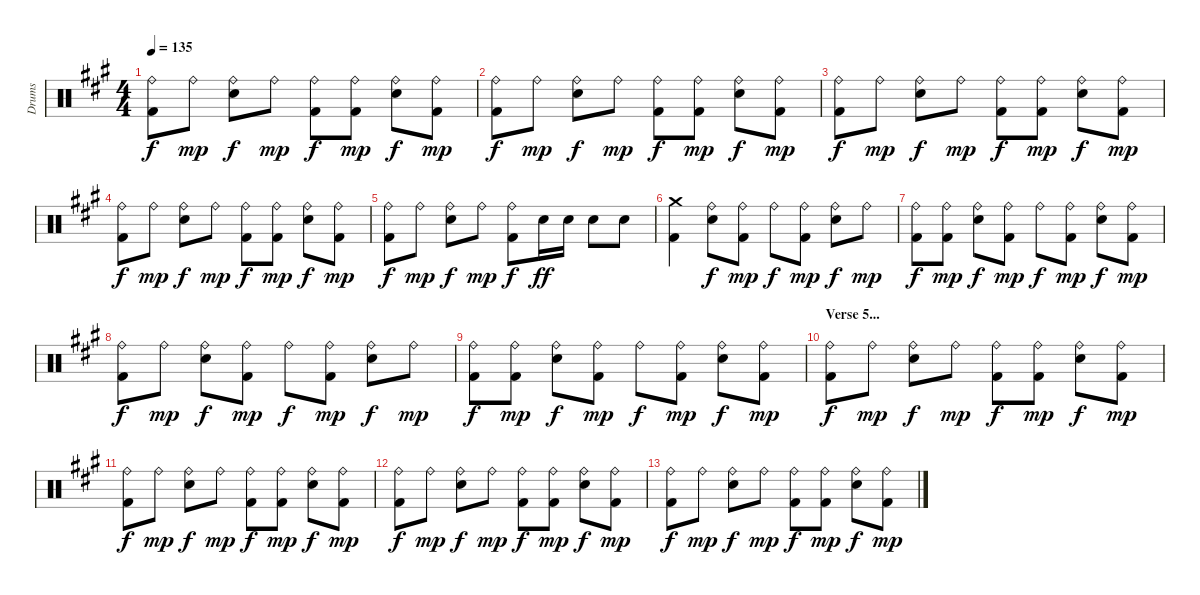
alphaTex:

\track ("Drums" "Drums") {instrument percussion}
\staff {score}
\articulation defaults
\ts (4 4)
\tempo 135
\clef neutral
\ks a
("Ride (bell)" "Kick (hit) 2").8{dy f} "Ride (bell)".8{dy mp} ("Ride (bell)" "Electric Snare (hit)").8{dy f} "Ride (bell)".8{dy mp} ("Ride (bell)" "Kick (hit) 2").8{dy f} ("Ride (bell)" "Kick (hit) 2").8{dy mp} ("Ride (bell)" "Electric Snare (hit)").8{dy f} ("Ride (bell)" "Kick (hit) 2").8{dy mp} |
("Ride (bell)" "Kick (hit) 2").8{dy f} "Ride (bell)".8{dy mp} ("Ride (bell)" "Electric Snare (hit)").8{dy f} "Ride (bell)".8{dy mp} ("Ride (bell)" "Kick (hit) 2").8{dy f} ("Ride (bell)" "Kick (hit) 2").8{dy mp} ("Ride (bell)" "Electric Snare (hit)").8{dy f} ("Ride (bell)" "Kick (hit) 2").8{dy mp} |
("Ride (bell)" "Kick (hit) 2").8{dy f} "Ride (bell)".8{dy mp} ("Ride (bell)" "Electric Snare (hit)").8{dy f} "Ride (bell)".8{dy mp} ("Ride (bell)" "Kick (hit) 2").8{dy f} ("Ride (bell)" "Kick (hit) 2").8{dy mp} ("Ride (bell)" "Electric Snare (hit)").8{dy f} ("Ride (bell)" "Kick (hit) 2").8{dy mp} |
("Ride (bell)" "Kick (hit) 2").8{dy f} "Ride (bell)".8{dy mp} ("Ride (bell)" "Electric Snare (hit)").8{dy f} "Ride (bell)".8{dy mp} ("Ride (bell)" "Kick (hit) 2").8{dy f} ("Ride (bell)" "Kick (hit) 2").8{dy mp} ("Ride (bell)" "Electric Snare (hit)").8{dy f} ("Ride (bell)" "Kick (hit) 2").8{dy mp} |
("Ride (bell)" "Kick (hit) 2").8{dy f} "Ride (bell)".8{dy mp} ("Ride (bell)" "Electric Snare (hit)").8{dy f} "Ride (bell)".8{dy mp} ("Ride (bell)" "Kick (hit) 2").8{dy f} "Electric Snare (hit)".16{dy ff} "Electric Snare (hit)".16 "Electric Snare (hit)".8 "Electric Snare (hit)".8 |
("Crash medium (hit)" "Kick (hit) 2").4 ("Ride (bell)" "Electric Snare (hit)").8{dy f} ("Ride (bell)" "Kick (hit) 2").8{dy mp} "Ride (bell)".8{dy f} ("Ride (bell)" "Kick (hit) 2").8{dy mp} ("Ride (bell)" "Electric Snare (hit)").8{dy f} "Ride (bell)".8{dy mp} |
("Ride (bell)" "Kick (hit) 2").8{dy f} ("Ride (bell)" "Kick (hit) 2").8{dy mp} ("Ride (bell)" "Electric Snare (hit)").8{dy f} ("Ride (bell)" "Kick (hit) 2").8{dy mp} "Ride (bell)".8{dy f} ("Ride (bell)" "Kick (hit) 2").8{dy mp} ("Ride (bell)" "Electric Snare (hit)").8{dy f} ("Ride (bell)" "Kick (hit) 2").8{dy mp} |
("Ride (bell)" "Kick (hit) 2").8{dy f} "Ride (bell)".8{dy mp} ("Ride (bell)" "Electric Snare (hit)").8{dy f} ("Ride (bell)" "Kick (hit) 2").8{dy mp} "Ride (bell)".8{dy f} ("Ride (bell)" "Kick (hit) 2").8{dy mp} ("Ride (bell)" "Electric Snare (hit)").8{dy f} "Ride (bell)".8{dy mp} |
("Ride (bell)" "Kick (hit) 2").8{dy f} ("Ride (bell)" "Kick (hit) 2").8{dy mp} ("Ride (bell)" "Electric Snare (hit)").8{dy f} ("Ride (bell)" "Kick (hit) 2").8{dy mp} "Ride (bell)".8{dy f} ("Ride (bell)" "Kick (hit) 2").8{dy mp} ("Ride (bell)" "Electric Snare (hit)").8{dy f} ("Ride (bell)" "Kick (hit) 2").8{dy mp} |
\section ("" "Verse 5...")
("Ride (bell)" "Kick (hit) 2").8{dy f volume 0} "Ride (bell)".8{dy mp} ("Ride (bell)" "Electric Snare (hit)").8{dy f} "Ride (bell)".8{dy mp} ("Ride (bell)" "Kick (hit) 2").8{dy f} ("Ride (bell)" "Kick (hit) 2").8{dy mp} ("Ride (bell)" "Electric Snare (hit)").8{dy f} ("Ride (bell)" "Kick (hit) 2").8{dy mp} |
("Ride (bell)" "Kick (hit) 2").8{dy f} "Ride (bell)".8{dy mp} ("Ride (bell)" "Electric Snare (hit)").8{dy f} "Ride (bell)".8{dy mp} ("Ride (bell)" "Kick (hit) 2").8{dy f} ("Ride (bell)" "Kick (hit) 2").8{dy mp} ("Ride (bell)" "Electric Snare (hit)").8{dy f} ("Ride (bell)" "Kick (hit) 2").8{dy mp} |
("Ride (bell)" "Kick (hit) 2").8{dy f} "Ride (bell)".8{dy mp} ("Ride (bell)" "Electric Snare (hit)").8{dy f} "Ride (bell)".8{dy mp} ("Ride (bell)" "Kick (hit) 2").8{dy f} ("Ride (bell)" "Kick (hit) 2").8{dy mp} ("Ride (bell)" "Electric Snare (hit)").8{dy f} ("Ride (bell)" "Kick (hit) 2").8{dy mp} |
("Ride (bell)" "Kick (hit) 2").8{dy f} "Ride (bell)".8{dy mp} ("Ride (bell)" "Electric Snare (hit)").8{dy f} "Ride (bell)".8{dy mp} ("Ride (bell)" "Kick (hit) 2").8{dy f} ("Ride (bell)" "Kick (hit) 2").8{dy mp} ("Ride (bell)" "Electric Snare (hit)").8{dy f} ("Ride (bell)" "Kick (hit) 2").8{dy mp}
